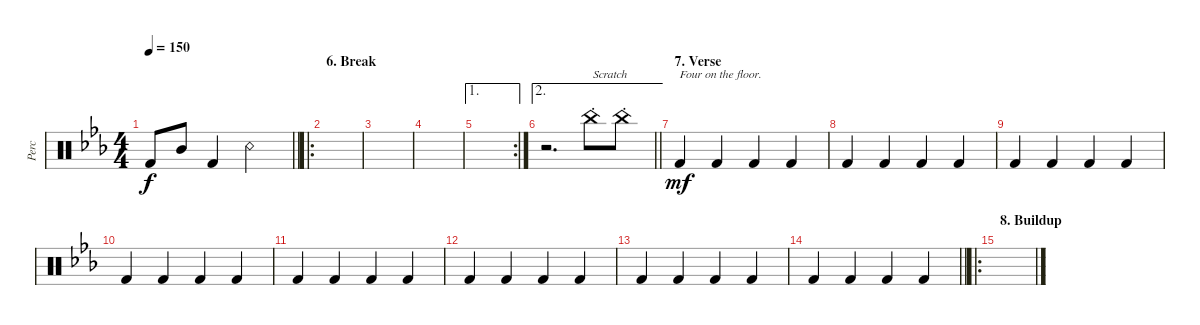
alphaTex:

\defaultSystemsLayout 4
\bracketExtendMode groupsimilarinstruments
\otherSystemsTrackNameOrientation horizontal
\track ("Percussion" "Perc") {instrument percussion}
\staff {score}
\articulation defaults
\ts (4 4)
\tempo 150
\clef neutral
\barLineRight lightlight
\ks cminor "Kick (hit) 2"{acc forcenatural}.8{dy f beam Up} "Mid Tom (hit)"{acc forcenatural}.8{beam Up} "Kick (hit) 2"{acc forcenatural}.4{beam Up} "Snare (rim shot)"{acc forcenatural}.2{beam Down}
|
\ro
\section ("" "6. Break")
|
|
|
\ae 1
\rc 2
|
\ae 2
\barLineRight lightlight
r.2{d beam Down} "China (hit)"{st acc forcenatural}.8{txt "Scratch" beam Down} "China (hit)"{st acc forcenatural}.8{beam Down} |
\section ("" "7. Verse")
"Kick (hit) 2"{acc forcenatural}.4{txt "Four on the floor." dy mf beam Up} "Kick (hit) 2"{acc forcenatural}.4{beam Up} "Kick (hit) 2"{acc forcenatural}.4{beam Up} "Kick (hit) 2"{acc forcenatural}.4{beam Up} |
"Kick (hit) 2"{acc forcenatural}.4{beam Up} "Kick (hit) 2"{acc forcenatural}.4{beam Up} "Kick (hit) 2"{acc forcenatural}.4{beam Up} "Kick (hit) 2"{acc forcenatural}.4{beam Up} |
"Kick (hit) 2"{acc forcenatural}.4{beam Up} "Kick (hit) 2"{acc forcenatural}.4{beam Up} "Kick (hit) 2"{acc forcenatural}.4{beam Up} "Kick (hit) 2"{acc forcenatural}.4{beam Up} |
"Kick (hit) 2"{acc forcenatural}.4{beam Up} "Kick (hit) 2"{acc forcenatural}.4{beam Up} "Kick (hit) 2"{acc forcenatural}.4{beam Up} "Kick (hit) 2"{acc forcenatural}.4{beam Up} |
"Kick (hit) 2"{acc forcenatural}.4{beam Up} "Kick (hit) 2"{acc forcenatural}.4{beam Up} "Kick (hit) 2"{acc forcenatural}.4{beam Up} "Kick (hit) 2"{acc forcenatural}.4{beam Up} |
"Kick (hit) 2"{acc forcenatural}.4{beam Up} "Kick (hit) 2"{acc forcenatural}.4{beam Up} "Kick (hit) 2"{acc forcenatural}.4{beam Up} "Kick (hit) 2"{acc forcenatural}.4{beam Up} |
"Kick (hit) 2"{acc forcenatural}.4{beam Up} "Kick (hit) 2"{acc forcenatural}.4{beam Up} "Kick (hit) 2"{acc forcenatural}.4{beam Up} "Kick (hit) 2"{acc forcenatural}.4{beam Up} |
\barLineRight lightlight "Kick (hit) 2"{acc forcenatural}.4{beam Up} "Kick (hit) 2"{acc forcenatural}.4{beam Up} "Kick (hit) 2"{acc forcenatural}.4{beam Up} "Kick (hit) 2"{acc forcenatural}.4{beam Up}
|
\ro
\section ("" "8. Buildup")
